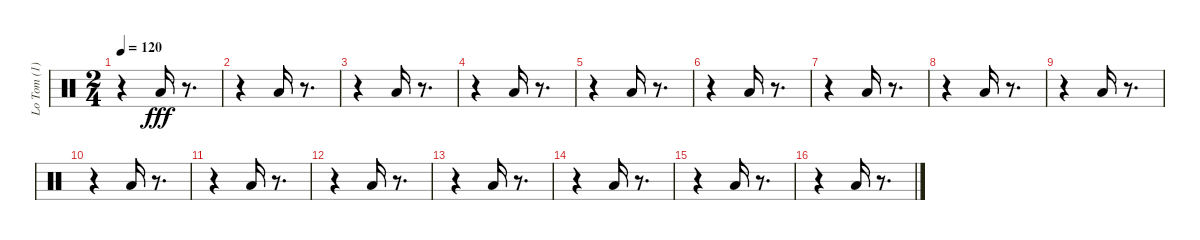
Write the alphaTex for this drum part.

\track ("Lo Tom (1) (1) (1) (1)" "Lo Tom (1)") {instrument percussion}
\staff {score}
\articulation defaults
\ts (2 4)
\tempo 120
\clef neutral
\ks c
r.4{dy fff} "Low Tom (hit)".16 r.8{d} |
r.4 "Low Tom (hit)".16 r.8{d} |
r.4 "Low Tom (hit)".16 r.8{d} |
r.4 "Low Tom (hit)".16 r.8{d} |
r.4 "Low Tom (hit)".16 r.8{d} |
r.4 "Low Tom (hit)".16 r.8{d} |
r.4 "Low Tom (hit)".16 r.8{d} |
r.4 "Low Tom (hit)".16 r.8{d} |
r.4 "Low Tom (hit)".16 r.8{d} |
r.4 "Low Tom (hit)".16 r.8{d} |
r.4 "Low Tom (hit)".16 r.8{d} |
r.4 "Low Tom (hit)".16 r.8{d} |
r.4 "Low Tom (hit)".16 r.8{d} |
r.4 "Low Tom (hit)".16 r.8{d} |
r.4 "Low Tom (hit)".16 r.8{d} |
r.4 "Low Tom (hit)".16 r.8{d}
